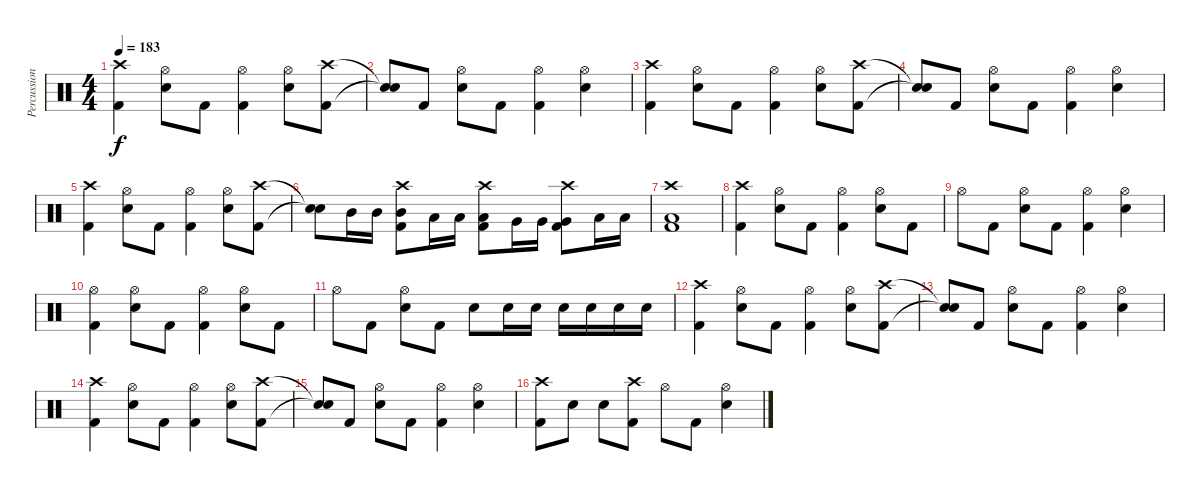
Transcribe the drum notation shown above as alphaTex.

\track ("Percussion" "Percussion") {instrument percussion}
\staff {score}
\articulation defaults
\ts (4 4)
\tempo 183
\clef neutral
\ks c
("Crash high (hit)" "Kick (hit) 2").4{dy f} ("Hi-Hat (open)" "Electric Snare (hit)").8 "Kick (hit) 2".8 ("Hi-Hat (open)" "Kick (hit) 2").4 ("Hi-Hat (open)" "Electric Snare (hit)").8 ("Crash high (hit)" "Kick (hit) 2").8 |
("Snare (hit)"{t} "Snare (hit)"{t}).8 "Kick (hit) 2".8 ("Hi-Hat (open)" "Electric Snare (hit)").8 "Kick (hit) 2".8 ("Hi-Hat (open)" "Kick (hit) 2").4 ("Hi-Hat (open)" "Electric Snare (hit)").4 |
("Crash high (hit)" "Kick (hit) 2").4 ("Hi-Hat (open)" "Electric Snare (hit)").8 "Kick (hit) 2".8 ("Hi-Hat (open)" "Kick (hit) 2").4 ("Hi-Hat (open)" "Electric Snare (hit)").8 ("Crash high (hit)" "Kick (hit) 2").8 |
("Snare (hit)"{t} "Snare (hit)"{t}).8 "Kick (hit) 2".8 ("Hi-Hat (open)" "Electric Snare (hit)").8 "Kick (hit) 2".8 ("Hi-Hat (open)" "Kick (hit) 2").4 ("Hi-Hat (open)" "Electric Snare (hit)").4 |
("Crash high (hit)" "Kick (hit) 2").4 ("Hi-Hat (open)" "Electric Snare (hit)").8 "Kick (hit) 2".8 ("Hi-Hat (open)" "Kick (hit) 2").4 ("Hi-Hat (open)" "Electric Snare (hit)").8 ("Crash high (hit)" "Kick (hit) 2").8 |
("Snare (hit)"{t} "Snare (hit)"{t}).8 "Mid Tom (hit)".16 "Mid Tom (hit)".16 ("Crash high (hit)" "Mid Tom (hit)" "Kick (hit) 2").8 "Low Tom (hit)".16 "Low Tom (hit)".16 ("Crash high (hit)" "Low Tom (hit)" "Kick (hit) 2").8 "Very Low Tom (hit)".16 "Very Low Tom (hit)".16 ("Crash high (hit)" "Very Low Tom (hit)" "Kick (hit) 2").8 "Low Floor Tom (hit)".16 "Low Floor Tom (hit)".16 |
("Crash high (hit)" "Low Floor Tom (hit)" "Kick (hit) 2").1 |
("Crash high (hit)" "Kick (hit) 2").4 ("Hi-Hat (open)" "Electric Snare (hit)").8 "Kick (hit) 2".8 ("Hi-Hat (open)" "Kick (hit) 2").4 ("Hi-Hat (open)" "Electric Snare (hit)").8 "Kick (hit) 2".8 |
"Hi-Hat (open)".8 "Kick (hit) 2".8 ("Hi-Hat (open)" "Electric Snare (hit)").8 "Kick (hit) 2".8 ("Hi-Hat (open)" "Kick (hit) 2").4 ("Hi-Hat (open)" "Electric Snare (hit)").4 |
("Hi-Hat (open)" "Kick (hit) 2").4 ("Hi-Hat (open)" "Electric Snare (hit)").8 "Kick (hit) 2".8 ("Hi-Hat (open)" "Kick (hit) 2").4 ("Hi-Hat (open)" "Electric Snare (hit)").8 "Kick (hit) 2".8 |
"Hi-Hat (open)".8 "Kick (hit) 2".8 ("Hi-Hat (open)" "Electric Snare (hit)").8 "Kick (hit) 2".8 "Electric Snare (hit)".8 "Electric Snare (hit)".16 "Electric Snare (hit)".16 "Electric Snare (hit)".16 "Electric Snare (hit)".16 "Electric Snare (hit)".16 "Electric Snare (hit)".16 |
("Crash high (hit)" "Kick (hit) 2").4 ("Hi-Hat (open)" "Electric Snare (hit)").8 "Kick (hit) 2".8 ("Hi-Hat (open)" "Kick (hit) 2").4 ("Hi-Hat (open)" "Electric Snare (hit)").8 ("Crash high (hit)" "Kick (hit) 2").8 |
("Snare (hit)"{t} "Snare (hit)"{t}).8 "Kick (hit) 2".8 ("Hi-Hat (open)" "Electric Snare (hit)").8 "Kick (hit) 2".8 ("Hi-Hat (open)" "Kick (hit) 2").4 ("Hi-Hat (open)" "Electric Snare (hit)").4 |
("Crash high (hit)" "Kick (hit) 2").4 ("Hi-Hat (open)" "Electric Snare (hit)").8 "Kick (hit) 2".8 ("Hi-Hat (open)" "Kick (hit) 2").4 ("Hi-Hat (open)" "Electric Snare (hit)").8 ("Crash high (hit)" "Kick (hit) 2").8 |
("Snare (hit)"{t} "Snare (hit)"{t}).8 "Kick (hit) 2".8 ("Hi-Hat (open)" "Electric Snare (hit)").8 "Kick (hit) 2".8 ("Hi-Hat (open)" "Kick (hit) 2").4 ("Hi-Hat (open)" "Electric Snare (hit)").4 |
("Crash high (hit)" "Kick (hit) 2").8 "Electric Snare (hit)".8 "Electric Snare (hit)".8 ("Crash high (hit)" "Kick (hit) 2").8 "Hi-Hat (open)".8 "Kick (hit) 2".8 ("Hi-Hat (open)" "Electric Snare (hit)").4
